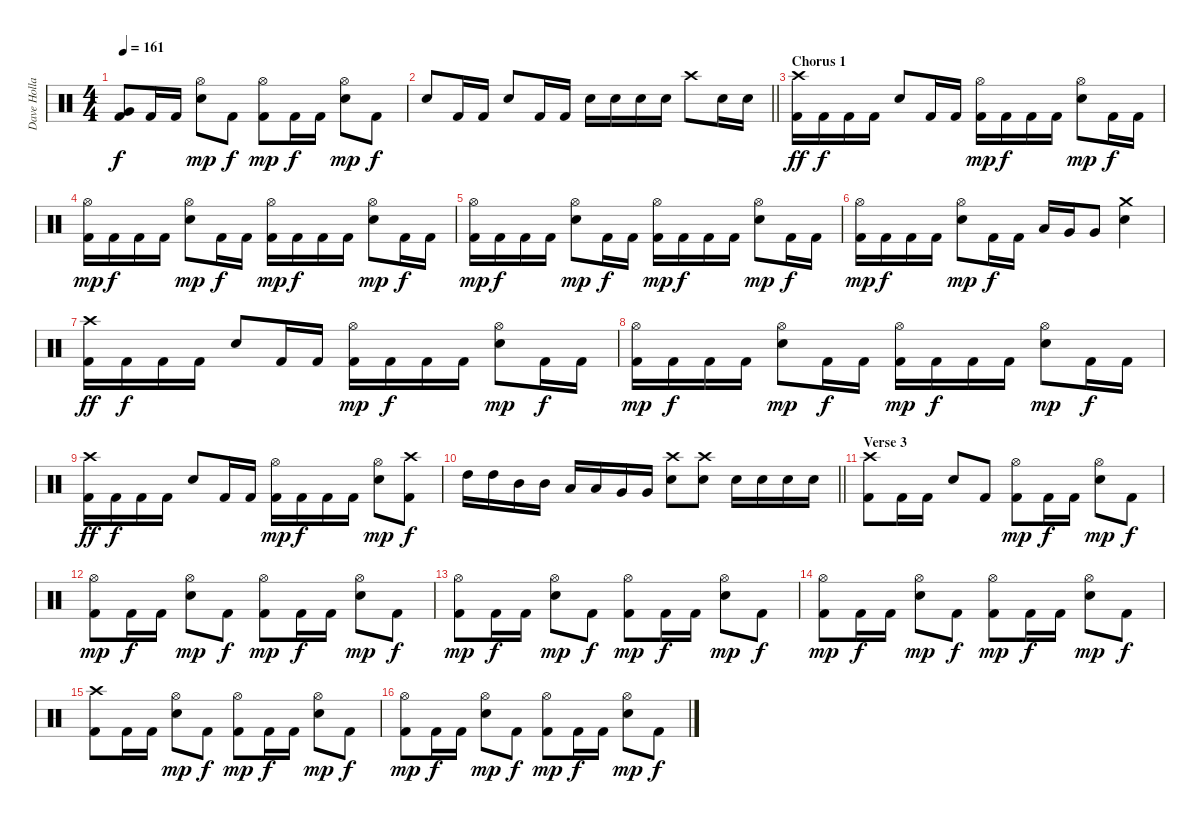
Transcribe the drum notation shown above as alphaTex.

\track ("Dave Holland" "Dave Holla") {instrument percussion}
\staff {score}
\articulation defaults
\ts (4 4)
\tempo 161
\clef neutral
\ks c
("Kick (hit) 2" "Very Low Tom (hit)").8{dy f} "Kick (hit) 2".16 "Kick (hit) 2".16 ("Hi-Hat (open)" "Snare (hit) 2").8{dy mp} "Kick (hit) 2".8{dy f} ("Kick (hit) 2" "Hi-Hat (open)").8{dy mp} "Kick (hit) 2".16{dy f} "Kick (hit) 2".16 ("Hi-Hat (open)" "Snare (hit) 2").8{dy mp} "Kick (hit) 2".8{dy f} |
\barLineRight lightlight "Snare (hit) 2".8 "Kick (hit) 2".16 "Kick (hit) 2".16 "Snare (hit) 2".8 "Kick (hit) 2".16 "Kick (hit) 2".16 "Snare (hit) 2".16 "Snare (hit) 2".16 "Snare (hit) 2".16 "Snare (hit) 2".16 "Crash high (hit)".8 "Snare (hit) 2".16 "Snare (hit) 2".16
|
\section ("" "Chorus 1")
("Kick (hit) 2" "Crash high (hit)").16{dy ff} "Kick (hit) 2".16{dy f} "Kick (hit) 2".16 "Kick (hit) 2".16 "Snare (hit) 2".8 "Kick (hit) 2".16 "Kick (hit) 2".16 ("Kick (hit) 2" "Hi-Hat (open)").16{dy mp} "Kick (hit) 2".16{dy f} "Kick (hit) 2".16 "Kick (hit) 2".16 ("Hi-Hat (open)" "Snare (hit) 2").8{dy mp} "Kick (hit) 2".16{dy f} "Kick (hit) 2".16 |
("Kick (hit) 2" "Hi-Hat (open)").16{dy mp} "Kick (hit) 2".16{dy f} "Kick (hit) 2".16 "Kick (hit) 2".16 ("Hi-Hat (open)" "Snare (hit) 2").8{dy mp} "Kick (hit) 2".16{dy f} "Kick (hit) 2".16 ("Kick (hit) 2" "Hi-Hat (open)").16{dy mp} "Kick (hit) 2".16{dy f} "Kick (hit) 2".16 "Kick (hit) 2".16 ("Hi-Hat (open)" "Snare (hit) 2").8{dy mp} "Kick (hit) 2".16{dy f} "Kick (hit) 2".16 |
("Kick (hit) 2" "Hi-Hat (open)").16{dy mp} "Kick (hit) 2".16{dy f} "Kick (hit) 2".16 "Kick (hit) 2".16 ("Hi-Hat (open)" "Snare (hit) 2").8{dy mp} "Kick (hit) 2".16{dy f} "Kick (hit) 2".16 ("Kick (hit) 2" "Hi-Hat (open)").16{dy mp} "Kick (hit) 2".16{dy f} "Kick (hit) 2".16 "Kick (hit) 2".16 ("Hi-Hat (open)" "Snare (hit) 2").8{dy mp} "Kick (hit) 2".16{dy f} "Kick (hit) 2".16 |
("Kick (hit) 2" "Hi-Hat (open)").16{dy mp} "Kick (hit) 2".16{dy f} "Kick (hit) 2".16 "Kick (hit) 2".16 ("Hi-Hat (open)" "Snare (hit) 2").8{dy mp} "Kick (hit) 2".16{dy f} "Kick (hit) 2".16 "Low Tom (hit)".16 "Very Low Tom (hit)".16 "Very Low Tom (hit)".8 ("Crash medium (hit)" "Snare (hit) 2").4 |
("Kick (hit) 2" "Crash high (hit)").16{dy ff} "Kick (hit) 2".16{dy f} "Kick (hit) 2".16 "Kick (hit) 2".16 "Snare (hit) 2".8 "Kick (hit) 2".16 "Kick (hit) 2".16 ("Kick (hit) 2" "Hi-Hat (open)").16{dy mp} "Kick (hit) 2".16{dy f} "Kick (hit) 2".16 "Kick (hit) 2".16 ("Hi-Hat (open)" "Snare (hit) 2").8{dy mp} "Kick (hit) 2".16{dy f} "Kick (hit) 2".16 |
("Kick (hit) 2" "Hi-Hat (open)").16{dy mp} "Kick (hit) 2".16{dy f} "Kick (hit) 2".16 "Kick (hit) 2".16 ("Hi-Hat (open)" "Snare (hit) 2").8{dy mp} "Kick (hit) 2".16{dy f} "Kick (hit) 2".16 ("Kick (hit) 2" "Hi-Hat (open)").16{dy mp} "Kick (hit) 2".16{dy f} "Kick (hit) 2".16 "Kick (hit) 2".16 ("Hi-Hat (open)" "Snare (hit) 2").8{dy mp} "Kick (hit) 2".16{dy f} "Kick (hit) 2".16 |
("Kick (hit) 2" "Crash high (hit)").16{dy ff} "Kick (hit) 2".16{dy f} "Kick (hit) 2".16 "Kick (hit) 2".16 "Snare (hit) 2".8 "Kick (hit) 2".16 "Kick (hit) 2".16 ("Kick (hit) 2" "Hi-Hat (open)").16{dy mp} "Kick (hit) 2".16{dy f} "Kick (hit) 2".16 "Kick (hit) 2".16 ("Hi-Hat (open)" "Snare (hit) 2").8{dy mp} ("Kick (hit) 2" "Crash high (hit)").8{dy f} |
\barLineRight lightlight "High Tom (hit)".16 "High Tom (hit)".16 "Mid Tom (hit)".16 "Mid Tom (hit)".16 "Low Tom (hit)".16 "Low Tom (hit)".16 "Very Low Tom (hit)".16 "Very Low Tom (hit)".16
("Crash high (hit)" "Snare (hit) 2").8 ("Crash high (hit)" "Snare (hit) 2").8 "Snare (hit) 2".16 "Snare (hit) 2".16 "Snare (hit) 2".16 "Snare (hit) 2".16 |
\section ("" "Verse 3")
("Kick (hit) 2" "Crash high (hit)").8 "Kick (hit) 2".16 "Kick (hit) 2".16 "Snare (hit) 2".8 "Kick (hit) 2".8 ("Kick (hit) 2" "Hi-Hat (open)").8{dy mp} "Kick (hit) 2".16{dy f} "Kick (hit) 2".16 ("Hi-Hat (open)" "Snare (hit) 2").8{dy mp} "Kick (hit) 2".8{dy f} |
("Kick (hit) 2" "Hi-Hat (open)").8{dy mp} "Kick (hit) 2".16{dy f} "Kick (hit) 2".16 ("Hi-Hat (open)" "Snare (hit) 2").8{dy mp} "Kick (hit) 2".8{dy f} ("Kick (hit) 2" "Hi-Hat (open)").8{dy mp} "Kick (hit) 2".16{dy f} "Kick (hit) 2".16 ("Hi-Hat (open)" "Snare (hit) 2").8{dy mp} "Kick (hit) 2".8{dy f} |
("Kick (hit) 2" "Hi-Hat (open)").8{dy mp} "Kick (hit) 2".16{dy f} "Kick (hit) 2".16 ("Hi-Hat (open)" "Snare (hit) 2").8{dy mp} "Kick (hit) 2".8{dy f} ("Kick (hit) 2" "Hi-Hat (open)").8{dy mp} "Kick (hit) 2".16{dy f} "Kick (hit) 2".16 ("Hi-Hat (open)" "Snare (hit) 2").8{dy mp} "Kick (hit) 2".8{dy f} |
("Kick (hit) 2" "Hi-Hat (open)").8{dy mp} "Kick (hit) 2".16{dy f} "Kick (hit) 2".16 ("Hi-Hat (open)" "Snare (hit) 2").8{dy mp} "Kick (hit) 2".8{dy f} ("Kick (hit) 2" "Hi-Hat (open)").8{dy mp} "Kick (hit) 2".16{dy f} "Kick (hit) 2".16 ("Hi-Hat (open)" "Snare (hit) 2").8{dy mp} "Kick (hit) 2".8{dy f} |
("Kick (hit) 2" "Crash high (hit)").8 "Kick (hit) 2".16 "Kick (hit) 2".16 ("Hi-Hat (open)" "Snare (hit) 2").8{dy mp} "Kick (hit) 2".8{dy f} ("Kick (hit) 2" "Hi-Hat (open)").8{dy mp} "Kick (hit) 2".16{dy f} "Kick (hit) 2".16 ("Hi-Hat (open)" "Snare (hit) 2").8{dy mp} "Kick (hit) 2".8{dy f} |
("Kick (hit) 2" "Hi-Hat (open)").8{dy mp} "Kick (hit) 2".16{dy f} "Kick (hit) 2".16 ("Hi-Hat (open)" "Snare (hit) 2").8{dy mp} "Kick (hit) 2".8{dy f} ("Kick (hit) 2" "Hi-Hat (open)").8{dy mp} "Kick (hit) 2".16{dy f} "Kick (hit) 2".16 ("Hi-Hat (open)" "Snare (hit) 2").8{dy mp} "Kick (hit) 2".8{dy f}
